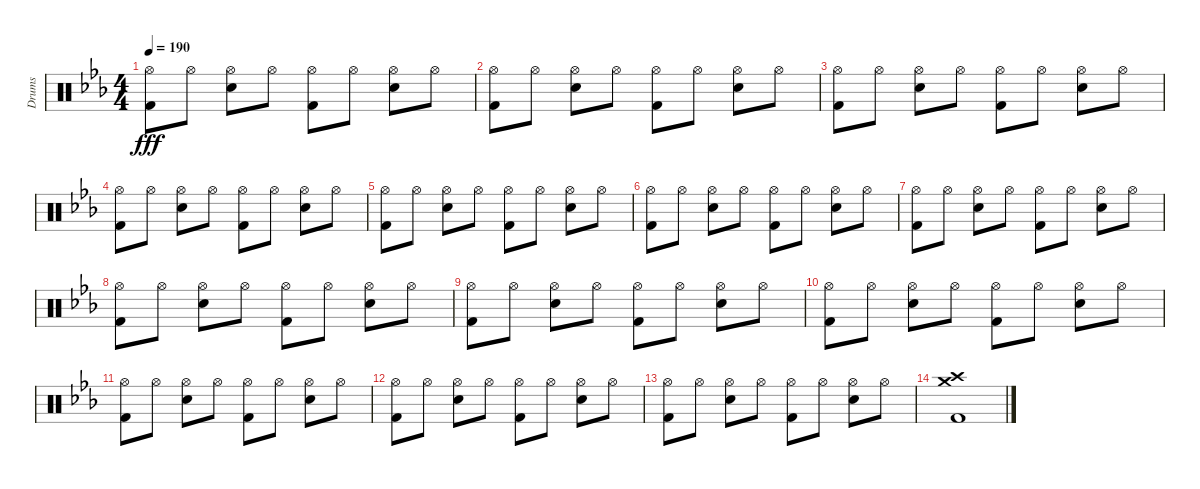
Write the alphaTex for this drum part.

\track ("Drums" "Drums") {instrument percussion}
\staff {score}
\articulation defaults
\ts (4 4)
\tempo 190
\clef neutral
\ks eb
("Hi-Hat (open)" "Kick (hit) 2").8{dy fff} "Hi-Hat (open)".8 ("Hi-Hat (open)" "Electric Snare (hit)").8 "Hi-Hat (open)".8 ("Hi-Hat (open)" "Kick (hit) 2").8 "Hi-Hat (open)".8 ("Hi-Hat (open)" "Electric Snare (hit)").8 "Hi-Hat (open)".8 |
("Hi-Hat (open)" "Kick (hit) 2").8 "Hi-Hat (open)".8 ("Hi-Hat (open)" "Electric Snare (hit)").8 "Hi-Hat (open)".8 ("Hi-Hat (open)" "Kick (hit) 2").8 "Hi-Hat (open)".8 ("Hi-Hat (open)" "Electric Snare (hit)").8 "Hi-Hat (open)".8 |
("Hi-Hat (open)" "Kick (hit) 2").8 "Hi-Hat (open)".8 ("Hi-Hat (open)" "Electric Snare (hit)").8 "Hi-Hat (open)".8 ("Hi-Hat (open)" "Kick (hit) 2").8 "Hi-Hat (open)".8 ("Hi-Hat (open)" "Electric Snare (hit)").8 "Hi-Hat (open)".8 |
("Hi-Hat (open)" "Kick (hit) 2").8 "Hi-Hat (open)".8 ("Hi-Hat (open)" "Electric Snare (hit)").8 "Hi-Hat (open)".8 ("Hi-Hat (open)" "Kick (hit) 2").8 "Hi-Hat (open)".8 ("Hi-Hat (open)" "Electric Snare (hit)").8 "Hi-Hat (open)".8 |
("Hi-Hat (open)" "Kick (hit) 2").8 "Hi-Hat (open)".8 ("Hi-Hat (open)" "Electric Snare (hit)").8 "Hi-Hat (open)".8 ("Hi-Hat (open)" "Kick (hit) 2").8 "Hi-Hat (open)".8 ("Hi-Hat (open)" "Electric Snare (hit)").8 "Hi-Hat (open)".8 |
("Hi-Hat (open)" "Kick (hit) 2").8 "Hi-Hat (open)".8 ("Hi-Hat (open)" "Electric Snare (hit)").8 "Hi-Hat (open)".8 ("Hi-Hat (open)" "Kick (hit) 2").8 "Hi-Hat (open)".8 ("Hi-Hat (open)" "Electric Snare (hit)").8 "Hi-Hat (open)".8 |
("Hi-Hat (open)" "Kick (hit) 2").8 "Hi-Hat (open)".8 ("Hi-Hat (open)" "Electric Snare (hit)").8 "Hi-Hat (open)".8 ("Hi-Hat (open)" "Kick (hit) 2").8 "Hi-Hat (open)".8 ("Hi-Hat (open)" "Electric Snare (hit)").8 "Hi-Hat (open)".8 |
("Hi-Hat (open)" "Kick (hit) 2").8 "Hi-Hat (open)".8 ("Hi-Hat (open)" "Electric Snare (hit)").8 "Hi-Hat (open)".8 ("Hi-Hat (open)" "Kick (hit) 2").8 "Hi-Hat (open)".8 ("Hi-Hat (open)" "Electric Snare (hit)").8 "Hi-Hat (open)".8 |
("Hi-Hat (open)" "Kick (hit) 2").8 "Hi-Hat (open)".8 ("Hi-Hat (open)" "Electric Snare (hit)").8 "Hi-Hat (open)".8 ("Hi-Hat (open)" "Kick (hit) 2").8 "Hi-Hat (open)".8 ("Hi-Hat (open)" "Electric Snare (hit)").8 "Hi-Hat (open)".8 |
("Hi-Hat (open)" "Kick (hit) 2").8 "Hi-Hat (open)".8 ("Hi-Hat (open)" "Electric Snare (hit)").8 "Hi-Hat (open)".8 ("Hi-Hat (open)" "Kick (hit) 2").8 "Hi-Hat (open)".8 ("Hi-Hat (open)" "Electric Snare (hit)").8 "Hi-Hat (open)".8 |
("Hi-Hat (open)" "Kick (hit) 2").8 "Hi-Hat (open)".8 ("Hi-Hat (open)" "Electric Snare (hit)").8 "Hi-Hat (open)".8 ("Hi-Hat (open)" "Kick (hit) 2").8 "Hi-Hat (open)".8 ("Hi-Hat (open)" "Electric Snare (hit)").8 "Hi-Hat (open)".8 |
("Hi-Hat (open)" "Kick (hit) 2").8 "Hi-Hat (open)".8 ("Hi-Hat (open)" "Electric Snare (hit)").8 "Hi-Hat (open)".8 ("Hi-Hat (open)" "Kick (hit) 2").8 "Hi-Hat (open)".8 ("Hi-Hat (open)" "Electric Snare (hit)").8 "Hi-Hat (open)".8 |
("Hi-Hat (open)" "Kick (hit) 2").8 "Hi-Hat (open)".8 ("Hi-Hat (open)" "Electric Snare (hit)").8 "Hi-Hat (open)".8 ("Hi-Hat (open)" "Kick (hit) 2").8 "Hi-Hat (open)".8 ("Hi-Hat (open)" "Electric Snare (hit)").8 "Hi-Hat (open)".8 |
("Crash high (hit)" "Crash medium (hit)" "Kick (hit) 2").1
